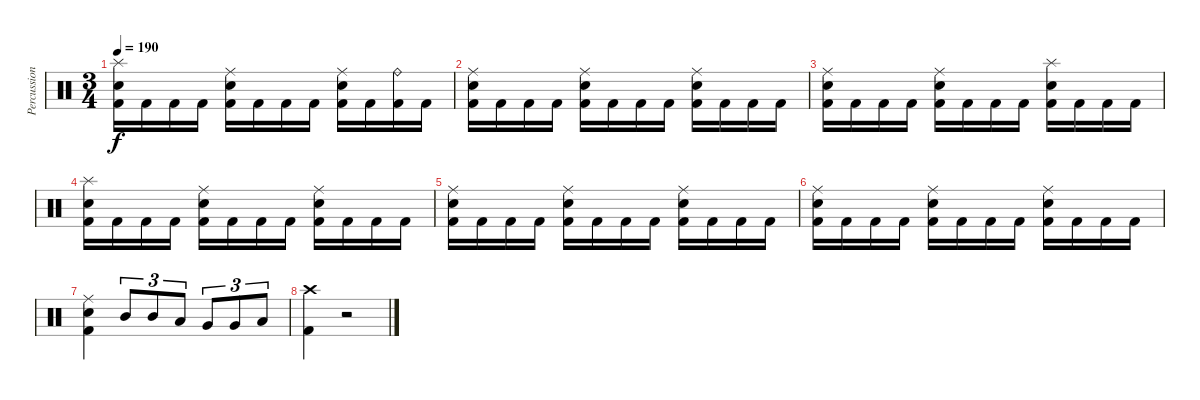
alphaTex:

\track ("Percussion" "Percussion") {instrument percussion}
\staff {score}
\articulation defaults
\ts (3 4)
\tempo 190
\clef neutral
\ks c
("Splash (hit)" "Electric Snare (hit)" "Kick (hit) 2").16{dy f} "Kick (hit) 2".16 "Kick (hit) 2".16 "Kick (hit) 2".16 ("Ride (middle)" "Electric Snare (hit)" "Kick (hit) 2").16 "Kick (hit) 2".16 "Kick (hit) 2".16 "Kick (hit) 2".16 ("Ride (middle)" "Electric Snare (hit)" "Kick (hit) 2").16 "Kick (hit) 2".16 ("Ride (bell)" "Kick (hit) 2").16 "Kick (hit) 2".16 |
("Ride (middle)" "Electric Snare (hit)" "Kick (hit) 2").16 "Kick (hit) 2".16 "Kick (hit) 2".16 "Kick (hit) 2".16 ("Ride (middle)" "Electric Snare (hit)" "Kick (hit) 2").16 "Kick (hit) 2".16 "Kick (hit) 2".16 "Kick (hit) 2".16 ("Ride (middle)" "Electric Snare (hit)" "Kick (hit) 2").16 "Kick (hit) 2".16 "Kick (hit) 2".16 "Kick (hit) 2".16 |
("Ride (middle)" "Electric Snare (hit)" "Kick (hit) 2").16 "Kick (hit) 2".16 "Kick (hit) 2".16 "Kick (hit) 2".16 ("Ride (middle)" "Electric Snare (hit)" "Kick (hit) 2").16 "Kick (hit) 2".16 "Kick (hit) 2".16 "Kick (hit) 2".16 ("Splash (hit)" "Electric Snare (hit)" "Kick (hit) 2").16 "Kick (hit) 2".16 "Kick (hit) 2".16 "Kick (hit) 2".16 |
("Splash (hit)" "Electric Snare (hit)" "Kick (hit) 2").16 "Kick (hit) 2".16 "Kick (hit) 2".16 "Kick (hit) 2".16 ("Ride (middle)" "Electric Snare (hit)" "Kick (hit) 2").16 "Kick (hit) 2".16 "Kick (hit) 2".16 "Kick (hit) 2".16 ("Ride (middle)" "Electric Snare (hit)" "Kick (hit) 2").16 "Kick (hit) 2".16 "Kick (hit) 2".16 "Kick (hit) 2".16 |
("Ride (middle)" "Electric Snare (hit)" "Kick (hit) 2").16 "Kick (hit) 2".16 "Kick (hit) 2".16 "Kick (hit) 2".16 ("Ride (middle)" "Electric Snare (hit)" "Kick (hit) 2").16 "Kick (hit) 2".16 "Kick (hit) 2".16 "Kick (hit) 2".16 ("Ride (middle)" "Electric Snare (hit)" "Kick (hit) 2").16 "Kick (hit) 2".16 "Kick (hit) 2".16 "Kick (hit) 2".16 |
("Ride (middle)" "Electric Snare (hit)" "Kick (hit) 2").16 "Kick (hit) 2".16 "Kick (hit) 2".16 "Kick (hit) 2".16 ("Ride (middle)" "Electric Snare (hit)" "Kick (hit) 2").16 "Kick (hit) 2".16 "Kick (hit) 2".16 "Kick (hit) 2".16 ("Ride (middle)" "Electric Snare (hit)" "Kick (hit) 2").16 "Kick (hit) 2".16 "Kick (hit) 2".16 "Kick (hit) 2".16 |
("Ride (middle)" "Electric Snare (hit)" "Kick (hit) 2").4 "Mid Tom (hit)".8{tu (3 2)} "Mid Tom (hit)".8{tu (3 2)} "Low Tom (hit)".8{tu (3 2)} "Very Low Tom (hit)".8{tu (3 2)} "Very Low Tom (hit)".8{tu (3 2)} "Low Floor Tom (hit)".8{tu (3 2)} |
("Crash high (hit)" "Kick (hit) 2").4 r.2
